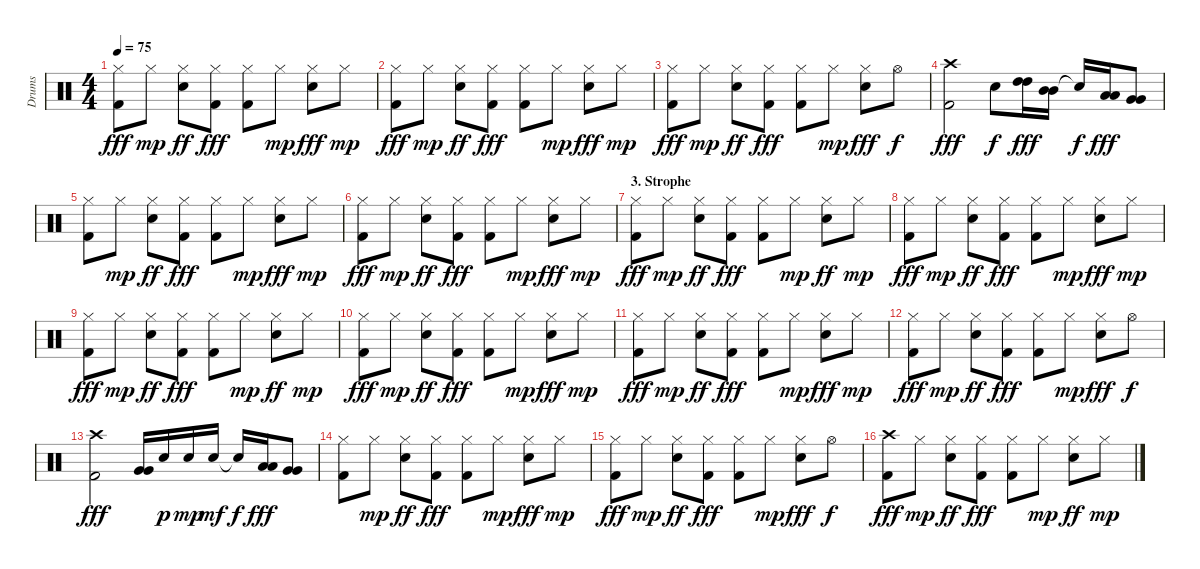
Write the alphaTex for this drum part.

\track ("Drums" "Drums") {instrument percussion}
\staff {score}
\articulation defaults
\ts (4 4)
\tempo 75
\clef neutral
\ks c
("Hi-Hat (closed)" "Kick (hit) 2").8{dy fff} "Hi-Hat (closed)".8{dy mp} ("Hi-Hat (closed)" "Electric Snare (hit)").8{dy ff} ("Hi-Hat (closed)" "Kick (hit) 2").8{dy fff} ("Hi-Hat (closed)" "Kick (hit) 2").8 "Hi-Hat (closed)".8{dy mp} ("Hi-Hat (closed)" "Electric Snare (hit)").8{dy fff} "Hi-Hat (closed)".8{dy mp} |
("Hi-Hat (closed)" "Kick (hit) 2").8{dy fff} "Hi-Hat (closed)".8{dy mp} ("Hi-Hat (closed)" "Electric Snare (hit)").8{dy ff} ("Hi-Hat (closed)" "Kick (hit) 2").8{dy fff} ("Hi-Hat (closed)" "Kick (hit) 2").8 "Hi-Hat (closed)".8{dy mp} ("Hi-Hat (closed)" "Electric Snare (hit)").8{dy fff} "Hi-Hat (closed)".8{dy mp} |
("Hi-Hat (closed)" "Kick (hit) 2").8{dy fff} "Hi-Hat (closed)".8{dy mp} ("Hi-Hat (closed)" "Electric Snare (hit)").8{dy ff} ("Hi-Hat (closed)" "Kick (hit) 2").8{dy fff} ("Hi-Hat (closed)" "Kick (hit) 2").8 "Hi-Hat (closed)".8{dy mp} ("Hi-Hat (closed)" "Electric Snare (hit)").8{dy fff} "Hi-Hat (open)".8{dy f} |
("Crash high (hit)" "Kick (hit) 2").2{dy fff} "Electric Snare (hit)".8{dy f} ("High Tom (hit)" "High Tom (hit)").16{dy fff} ("Mid Tom (hit)" "Mid Tom (hit)").16 "Snare (hit)"{t}.16{dy f} ("Low Tom (hit)" "Low Tom (hit)").16{dy fff} ("Very Low Tom (hit)" "Very Low Tom (hit)").8 |
("Hi-Hat (closed)" "Kick (hit) 2").8 "Hi-Hat (closed)".8{dy mp} ("Hi-Hat (closed)" "Electric Snare (hit)").8{dy ff} ("Hi-Hat (closed)" "Kick (hit) 2").8{dy fff} ("Hi-Hat (closed)" "Kick (hit) 2").8 "Hi-Hat (closed)".8{dy mp} ("Hi-Hat (closed)" "Electric Snare (hit)").8{dy fff} "Hi-Hat (closed)".8{dy mp} |
("Hi-Hat (closed)" "Kick (hit) 2").8{dy fff} "Hi-Hat (closed)".8{dy mp} ("Hi-Hat (closed)" "Electric Snare (hit)").8{dy ff} ("Hi-Hat (closed)" "Kick (hit) 2").8{dy fff} ("Hi-Hat (closed)" "Kick (hit) 2").8 "Hi-Hat (closed)".8{dy mp} ("Hi-Hat (closed)" "Electric Snare (hit)").8{dy fff} "Hi-Hat (closed)".8{dy mp} |
\section ("" "3. Strophe")
("Hi-Hat (closed)" "Kick (hit) 2").8{dy fff} "Hi-Hat (closed)".8{dy mp} ("Hi-Hat (closed)" "Electric Snare (hit)").8{dy ff} ("Hi-Hat (closed)" "Kick (hit) 2").8{dy fff} ("Hi-Hat (closed)" "Kick (hit) 2").8 "Hi-Hat (closed)".8{dy mp} ("Hi-Hat (closed)" "Electric Snare (hit)").8{dy ff} "Hi-Hat (closed)".8{dy mp} |
("Hi-Hat (closed)" "Kick (hit) 2").8{dy fff} "Hi-Hat (closed)".8{dy mp} ("Hi-Hat (closed)" "Electric Snare (hit)").8{dy ff} ("Hi-Hat (closed)" "Kick (hit) 2").8{dy fff} ("Hi-Hat (closed)" "Kick (hit) 2").8 "Hi-Hat (closed)".8{dy mp} ("Hi-Hat (closed)" "Electric Snare (hit)").8{dy fff} "Hi-Hat (closed)".8{dy mp} |
("Hi-Hat (closed)" "Kick (hit) 2").8{dy fff} "Hi-Hat (closed)".8{dy mp} ("Hi-Hat (closed)" "Electric Snare (hit)").8{dy ff} ("Hi-Hat (closed)" "Kick (hit) 2").8{dy fff} ("Hi-Hat (closed)" "Kick (hit) 2").8 "Hi-Hat (closed)".8{dy mp} ("Hi-Hat (closed)" "Electric Snare (hit)").8{dy ff} "Hi-Hat (closed)".8{dy mp} |
("Hi-Hat (closed)" "Kick (hit) 2").8{dy fff} "Hi-Hat (closed)".8{dy mp} ("Hi-Hat (closed)" "Electric Snare (hit)").8{dy ff} ("Hi-Hat (closed)" "Kick (hit) 2").8{dy fff} ("Hi-Hat (closed)" "Kick (hit) 2").8 "Hi-Hat (closed)".8{dy mp} ("Hi-Hat (closed)" "Electric Snare (hit)").8{dy fff} "Hi-Hat (closed)".8{dy mp} |
("Hi-Hat (closed)" "Kick (hit) 2").8{dy fff} "Hi-Hat (closed)".8{dy mp} ("Hi-Hat (closed)" "Electric Snare (hit)").8{dy ff} ("Hi-Hat (closed)" "Kick (hit) 2").8{dy fff} ("Hi-Hat (closed)" "Kick (hit) 2").8 "Hi-Hat (closed)".8{dy mp} ("Hi-Hat (closed)" "Electric Snare (hit)").8{dy fff} "Hi-Hat (closed)".8{dy mp} |
("Hi-Hat (closed)" "Kick (hit) 2").8{dy fff} "Hi-Hat (closed)".8{dy mp} ("Hi-Hat (closed)" "Electric Snare (hit)").8{dy ff} ("Hi-Hat (closed)" "Kick (hit) 2").8{dy fff} ("Hi-Hat (closed)" "Kick (hit) 2").8 "Hi-Hat (closed)".8{dy mp} ("Hi-Hat (closed)" "Electric Snare (hit)").8{dy fff} "Hi-Hat (open)".8{dy f} |
("Crash high (hit)" "Kick (hit) 2").2{dy fff} ("Very Low Tom (hit)" "Very Low Tom (hit)").16 "Electric Snare (hit)".16{dy p} "Electric Snare (hit)".16{dy mp} "Electric Snare (hit)".16{dy mf} "Snare (hit)"{t}.16{dy f} ("Low Tom (hit)" "Low Tom (hit)").16{dy fff} ("Very Low Tom (hit)" "Very Low Tom (hit)").8 |
("Hi-Hat (closed)" "Kick (hit) 2").8 "Hi-Hat (closed)".8{dy mp} ("Hi-Hat (closed)" "Electric Snare (hit)").8{dy ff} ("Hi-Hat (closed)" "Kick (hit) 2").8{dy fff} ("Hi-Hat (closed)" "Kick (hit) 2").8 "Hi-Hat (closed)".8{dy mp} ("Hi-Hat (closed)" "Electric Snare (hit)").8{dy fff} "Hi-Hat (closed)".8{dy mp} |
("Hi-Hat (closed)" "Kick (hit) 2").8{dy fff} "Hi-Hat (closed)".8{dy mp} ("Hi-Hat (closed)" "Electric Snare (hit)").8{dy ff} ("Hi-Hat (closed)" "Kick (hit) 2").8{dy fff} ("Hi-Hat (closed)" "Kick (hit) 2").8 "Hi-Hat (closed)".8{dy mp} ("Hi-Hat (closed)" "Electric Snare (hit)").8{dy fff} "Hi-Hat (open)".8{dy f} |
("Crash high (hit)" "Kick (hit) 2").8{dy fff} "Hi-Hat (closed)".8{dy mp} ("Hi-Hat (closed)" "Electric Snare (hit)").8{dy ff} ("Hi-Hat (closed)" "Kick (hit) 2").8{dy fff} ("Hi-Hat (closed)" "Kick (hit) 2").8 "Hi-Hat (closed)".8{dy mp} ("Hi-Hat (closed)" "Electric Snare (hit)").8{dy ff} "Hi-Hat (closed)".8{dy mp}
